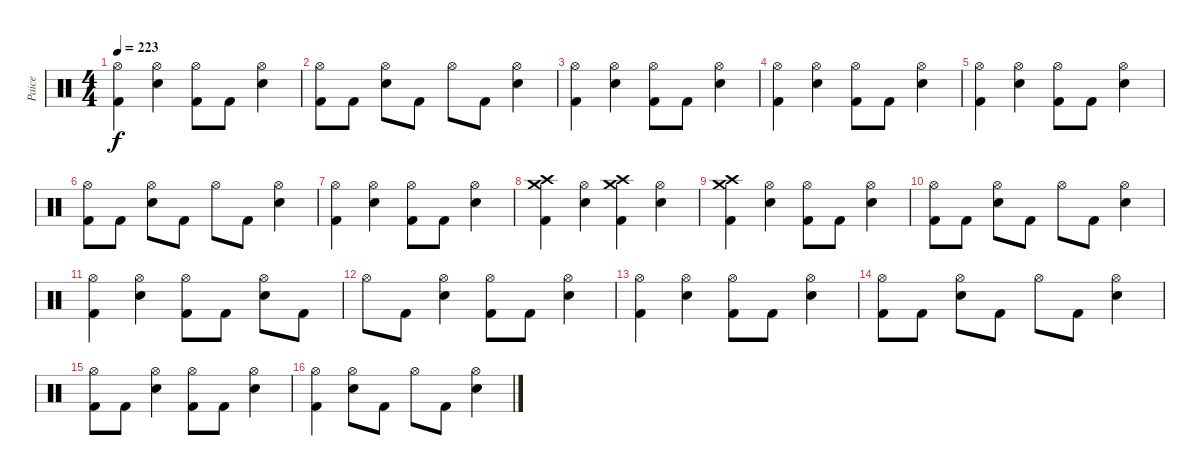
\track ("Paice" "Paice") {instrument percussion}
\staff {score}
\articulation defaults
\ts (4 4)
\tempo 223
\clef neutral
\ks c
("Hi-Hat (open)" "Kick (hit) 2").4{dy f} ("Hi-Hat (open)" "Electric Snare (hit)").4 ("Hi-Hat (open)" "Kick (hit) 2").8 "Kick (hit) 2".8 ("Hi-Hat (open)" "Electric Snare (hit)").4 |
("Hi-Hat (open)" "Kick (hit) 2").8 "Kick (hit) 2".8 ("Hi-Hat (open)" "Electric Snare (hit)").8 "Kick (hit) 2".8 "Hi-Hat (open)".8 "Kick (hit) 2".8 ("Hi-Hat (open)" "Electric Snare (hit)").4 |
("Hi-Hat (open)" "Kick (hit) 2").4 ("Hi-Hat (open)" "Electric Snare (hit)").4 ("Hi-Hat (open)" "Kick (hit) 2").8 "Kick (hit) 2".8 ("Hi-Hat (open)" "Electric Snare (hit)").4 |
("Hi-Hat (open)" "Kick (hit) 2").4 ("Hi-Hat (open)" "Electric Snare (hit)").4 ("Hi-Hat (open)" "Kick (hit) 2").8 "Kick (hit) 2".8 ("Hi-Hat (open)" "Electric Snare (hit)").4 |
("Hi-Hat (open)" "Kick (hit) 2").4 ("Hi-Hat (open)" "Electric Snare (hit)").4 ("Hi-Hat (open)" "Kick (hit) 2").8 "Kick (hit) 2".8 ("Hi-Hat (open)" "Electric Snare (hit)").4 |
("Hi-Hat (open)" "Kick (hit) 2").8 "Kick (hit) 2".8 ("Hi-Hat (open)" "Electric Snare (hit)").8 "Kick (hit) 2".8 "Hi-Hat (open)".8 "Kick (hit) 2".8 ("Hi-Hat (open)" "Electric Snare (hit)").4 |
("Hi-Hat (open)" "Kick (hit) 2").4 ("Hi-Hat (open)" "Electric Snare (hit)").4 ("Hi-Hat (open)" "Kick (hit) 2").8 "Kick (hit) 2".8 ("Hi-Hat (open)" "Electric Snare (hit)").4 |
("Crash high (hit)" "Crash medium (hit)" "Kick (hit) 2").4 ("Hi-Hat (open)" "Electric Snare (hit)").4 ("Crash high (hit)" "Crash medium (hit)" "Kick (hit) 2").4 ("Hi-Hat (open)" "Electric Snare (hit)").4 |
("Crash high (hit)" "Crash medium (hit)" "Kick (hit) 2").4 ("Hi-Hat (open)" "Electric Snare (hit)").4 ("Hi-Hat (open)" "Kick (hit) 2").8 "Kick (hit) 2".8 ("Hi-Hat (open)" "Electric Snare (hit)").4 |
("Hi-Hat (open)" "Kick (hit) 2").8 "Kick (hit) 2".8 ("Hi-Hat (open)" "Electric Snare (hit)").8 "Kick (hit) 2".8 "Hi-Hat (open)".8 "Kick (hit) 2".8 ("Hi-Hat (open)" "Electric Snare (hit)").4 |
("Hi-Hat (open)" "Kick (hit) 2").4 ("Hi-Hat (open)" "Electric Snare (hit)").4 ("Hi-Hat (open)" "Kick (hit) 2").8 "Kick (hit) 2".8 ("Hi-Hat (open)" "Electric Snare (hit)").8 "Kick (hit) 2".8 |
"Hi-Hat (open)".8 "Kick (hit) 2".8 ("Hi-Hat (open)" "Electric Snare (hit)").4 ("Hi-Hat (open)" "Kick (hit) 2").8 "Kick (hit) 2".8 ("Hi-Hat (open)" "Electric Snare (hit)").4 |
("Hi-Hat (open)" "Kick (hit) 2").4 ("Hi-Hat (open)" "Electric Snare (hit)").4 ("Hi-Hat (open)" "Kick (hit) 2").8 "Kick (hit) 2".8 ("Hi-Hat (open)" "Electric Snare (hit)").4 |
("Hi-Hat (open)" "Kick (hit) 2").8 "Kick (hit) 2".8 ("Hi-Hat (open)" "Electric Snare (hit)").8 "Kick (hit) 2".8 "Hi-Hat (open)".8 "Kick (hit) 2".8 ("Hi-Hat (open)" "Electric Snare (hit)").4 |
("Hi-Hat (open)" "Kick (hit) 2").8 "Kick (hit) 2".8 ("Hi-Hat (open)" "Electric Snare (hit)").4 ("Hi-Hat (open)" "Kick (hit) 2").8 "Kick (hit) 2".8 ("Hi-Hat (open)" "Electric Snare (hit)").4 |
("Hi-Hat (open)" "Kick (hit) 2").4 ("Hi-Hat (open)" "Electric Snare (hit)").8 "Kick (hit) 2".8 "Hi-Hat (open)".8 "Kick (hit) 2".8 ("Hi-Hat (open)" "Electric Snare (hit)").4
